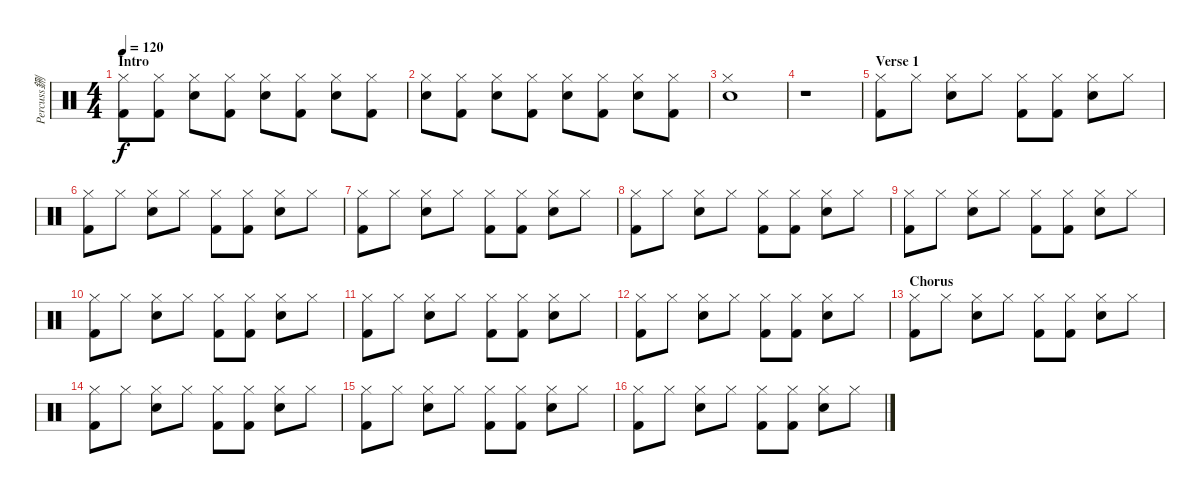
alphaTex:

\track ("Percuss鉶" "Percuss鉶") {instrument percussion}
\staff {score}
\articulation defaults
\ts (4 4)
\section ("" "Intro")
\tempo 120
\clef neutral
\ks c
("Hi-Hat (closed)" "Kick (hit) 2").8{dy f} ("Hi-Hat (closed)" "Kick (hit) 2").8 ("Hi-Hat (closed)" "Snare (hit) 2").8 ("Hi-Hat (closed)" "Kick (hit) 2").8 ("Hi-Hat (closed)" "Snare (hit) 2").8 ("Hi-Hat (closed)" "Kick (hit) 2").8 ("Hi-Hat (closed)" "Snare (hit) 2").8 ("Hi-Hat (closed)" "Kick (hit) 2").8 |
("Hi-Hat (closed)" "Snare (hit) 2").8 ("Hi-Hat (closed)" "Kick (hit) 2").8 ("Hi-Hat (closed)" "Snare (hit) 2").8 ("Hi-Hat (closed)" "Kick (hit) 2").8 ("Hi-Hat (closed)" "Snare (hit) 2").8 ("Hi-Hat (closed)" "Kick (hit) 2").8 ("Hi-Hat (closed)" "Snare (hit) 2").8 ("Hi-Hat (closed)" "Kick (hit) 2").8 |
("Hi-Hat (closed)" "Snare (hit) 2").1 |
r.1 |
\section ("" "Verse 1")
("Hi-Hat (closed)" "Kick (hit) 2").8 "Hi-Hat (closed)".8 ("Hi-Hat (closed)" "Snare (hit) 2").8 "Hi-Hat (closed)".8 ("Hi-Hat (closed)" "Kick (hit) 2").8 ("Hi-Hat (closed)" "Kick (hit) 2").8 ("Hi-Hat (closed)" "Snare (hit) 2").8 "Hi-Hat (closed)".8 |
("Hi-Hat (closed)" "Kick (hit) 2").8 "Hi-Hat (closed)".8 ("Hi-Hat (closed)" "Snare (hit) 2").8 "Hi-Hat (closed)".8 ("Hi-Hat (closed)" "Kick (hit) 2").8 ("Hi-Hat (closed)" "Kick (hit) 2").8 ("Hi-Hat (closed)" "Snare (hit) 2").8 "Hi-Hat (closed)".8 |
("Hi-Hat (closed)" "Kick (hit) 2").8 "Hi-Hat (closed)".8 ("Hi-Hat (closed)" "Snare (hit) 2").8 "Hi-Hat (closed)".8 ("Hi-Hat (closed)" "Kick (hit) 2").8 ("Hi-Hat (closed)" "Kick (hit) 2").8 ("Hi-Hat (closed)" "Snare (hit) 2").8 "Hi-Hat (closed)".8 |
("Hi-Hat (closed)" "Kick (hit) 2").8 "Hi-Hat (closed)".8 ("Hi-Hat (closed)" "Snare (hit) 2").8 "Hi-Hat (closed)".8 ("Hi-Hat (closed)" "Kick (hit) 2").8 ("Hi-Hat (closed)" "Kick (hit) 2").8 ("Hi-Hat (closed)" "Snare (hit) 2").8 "Hi-Hat (closed)".8 |
("Hi-Hat (closed)" "Kick (hit) 2").8 "Hi-Hat (closed)".8 ("Hi-Hat (closed)" "Snare (hit) 2").8 "Hi-Hat (closed)".8 ("Hi-Hat (closed)" "Kick (hit) 2").8 ("Hi-Hat (closed)" "Kick (hit) 2").8 ("Hi-Hat (closed)" "Snare (hit) 2").8 "Hi-Hat (closed)".8 |
("Hi-Hat (closed)" "Kick (hit) 2").8 "Hi-Hat (closed)".8 ("Hi-Hat (closed)" "Snare (hit) 2").8 "Hi-Hat (closed)".8 ("Hi-Hat (closed)" "Kick (hit) 2").8 ("Hi-Hat (closed)" "Kick (hit) 2").8 ("Hi-Hat (closed)" "Snare (hit) 2").8 "Hi-Hat (closed)".8 |
("Hi-Hat (closed)" "Kick (hit) 2").8 "Hi-Hat (closed)".8 ("Hi-Hat (closed)" "Snare (hit) 2").8 "Hi-Hat (closed)".8 ("Hi-Hat (closed)" "Kick (hit) 2").8 ("Hi-Hat (closed)" "Kick (hit) 2").8 ("Hi-Hat (closed)" "Snare (hit) 2").8 "Hi-Hat (closed)".8 |
("Hi-Hat (closed)" "Kick (hit) 2").8 "Hi-Hat (closed)".8 ("Hi-Hat (closed)" "Snare (hit) 2").8 "Hi-Hat (closed)".8 ("Hi-Hat (closed)" "Kick (hit) 2").8 ("Hi-Hat (closed)" "Kick (hit) 2").8 ("Hi-Hat (closed)" "Snare (hit) 2").8 "Hi-Hat (closed)".8 |
\section ("" "Chorus")
("Hi-Hat (closed)" "Kick (hit) 2").8 "Hi-Hat (closed)".8 ("Hi-Hat (closed)" "Snare (hit) 2").8 "Hi-Hat (closed)".8 ("Hi-Hat (closed)" "Kick (hit) 2").8 ("Hi-Hat (closed)" "Kick (hit) 2").8 ("Hi-Hat (closed)" "Snare (hit) 2").8 "Hi-Hat (closed)".8 |
("Hi-Hat (closed)" "Kick (hit) 2").8 "Hi-Hat (closed)".8 ("Hi-Hat (closed)" "Snare (hit) 2").8 "Hi-Hat (closed)".8 ("Hi-Hat (closed)" "Kick (hit) 2").8 ("Hi-Hat (closed)" "Kick (hit) 2").8 ("Hi-Hat (closed)" "Snare (hit) 2").8 "Hi-Hat (closed)".8 |
("Hi-Hat (closed)" "Kick (hit) 2").8 "Hi-Hat (closed)".8 ("Hi-Hat (closed)" "Snare (hit) 2").8 "Hi-Hat (closed)".8 ("Hi-Hat (closed)" "Kick (hit) 2").8 ("Hi-Hat (closed)" "Kick (hit) 2").8 ("Hi-Hat (closed)" "Snare (hit) 2").8 "Hi-Hat (closed)".8 |
("Hi-Hat (closed)" "Kick (hit) 2").8 "Hi-Hat (closed)".8 ("Hi-Hat (closed)" "Snare (hit) 2").8 "Hi-Hat (closed)".8 ("Hi-Hat (closed)" "Kick (hit) 2").8 ("Hi-Hat (closed)" "Kick (hit) 2").8 ("Hi-Hat (closed)" "Snare (hit) 2").8 "Hi-Hat (closed)".8
